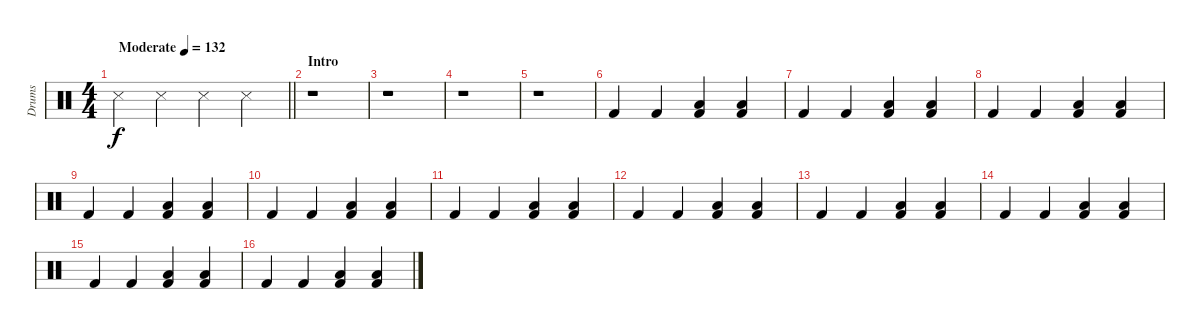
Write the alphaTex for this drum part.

\track ("Drums" "Drums") {instrument percussion}
\staff {score}
\articulation defaults
\ts (4 4)
\tempo (132 "Moderate")
\clef neutral
\barLineRight lightlight
\ks c "Metronome (hit)".4{dy f} "Metronome (hit)".4 "Metronome (hit)".4 "Metronome (hit)".4
|
\section ("" "Intro")
r.1 |
r.1 |
r.1 |
r.1 |
"Kick (hit) 2".4 "Kick (hit) 2".4 ("Low Tom (hit)" "Kick (hit) 2").4 ("Low Floor Tom (hit)" "Kick (hit) 2").4 |
"Kick (hit) 2".4 "Kick (hit) 2".4 ("Low Tom (hit)" "Kick (hit) 2").4 ("Low Floor Tom (hit)" "Kick (hit) 2").4 |
"Kick (hit) 2".4 "Kick (hit) 2".4 ("Low Tom (hit)" "Kick (hit) 2").4 ("Low Floor Tom (hit)" "Kick (hit) 2").4 |
"Kick (hit) 2".4 "Kick (hit) 2".4 ("Low Tom (hit)" "Kick (hit) 2").4 ("Low Floor Tom (hit)" "Kick (hit) 2").4 |
"Kick (hit) 2".4 "Kick (hit) 2".4 ("Low Tom (hit)" "Kick (hit) 2").4 ("Low Floor Tom (hit)" "Kick (hit) 2").4 |
"Kick (hit) 2".4 "Kick (hit) 2".4 ("Low Tom (hit)" "Kick (hit) 2").4 ("Low Floor Tom (hit)" "Kick (hit) 2").4 |
"Kick (hit) 2".4 "Kick (hit) 2".4 ("Low Tom (hit)" "Kick (hit) 2").4 ("Low Floor Tom (hit)" "Kick (hit) 2").4 |
"Kick (hit) 2".4 "Kick (hit) 2".4 ("Low Tom (hit)" "Kick (hit) 2").4 ("Low Floor Tom (hit)" "Kick (hit) 2").4 |
"Kick (hit) 2".4 "Kick (hit) 2".4 ("Low Tom (hit)" "Kick (hit) 2").4 ("Low Floor Tom (hit)" "Kick (hit) 2").4 |
"Kick (hit) 2".4 "Kick (hit) 2".4 ("Low Tom (hit)" "Kick (hit) 2").4 ("Low Floor Tom (hit)" "Kick (hit) 2").4 |
"Kick (hit) 2".4 "Kick (hit) 2".4 ("Low Tom (hit)" "Kick (hit) 2").4 ("Low Floor Tom (hit)" "Kick (hit) 2").4
